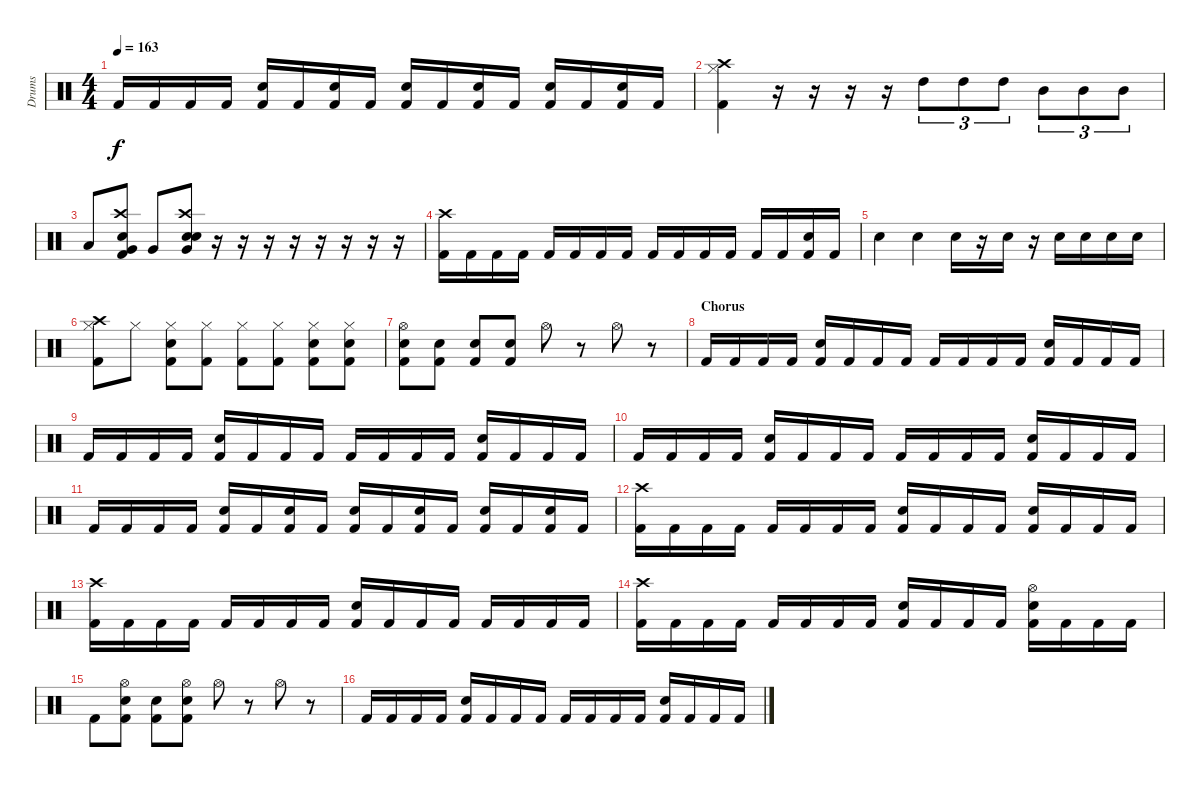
\track ("Drums" "Drums") {instrument percussion}
\staff {score}
\articulation defaults
\ts (4 4)
\tempo 163
\clef neutral
\ks c "Kick (hit) 2".16{dy f} "Kick (hit) 2".16 "Kick (hit) 2".16 "Kick (hit) 2".16
("Snare (hit) 2" "Kick (hit) 2").16 "Kick (hit) 2".16 ("Snare (hit) 2" "Kick (hit) 2").16 "Kick (hit) 2".16 ("Snare (hit) 2" "Kick (hit) 2").16 "Kick (hit) 2".16 ("Snare (hit) 2" "Kick (hit) 2").16 "Kick (hit) 2".16 ("Snare (hit) 2" "Kick (hit) 2").16 "Kick (hit) 2".16 ("Snare (hit) 2" "Kick (hit) 2").16 "Kick (hit) 2".16 |
("Crash high (hit)" "Hi-Hat (closed)" "Kick (hit) 2").4 r.16 r.16 r.16 r.16 "High Tom (hit)".8{tu (3 2)} "High Tom (hit)".8{tu (3 2)} "High Tom (hit)".8{tu (3 2)} "Mid Tom (hit)".8{tu (3 2)} "Mid Tom (hit)".8{tu (3 2)} "Mid Tom (hit)".8{tu (3 2)} |
"Low Tom (hit)".8 ("Crash high (hit)" "Electric Snare (hit)" "Very Low Tom (hit)" "Kick (hit) 2").8 "Very Low Tom (hit)".8 ("Crash high (hit)" "Electric Snare (hit)" "Very Low Tom (hit)" "Snare (hit)").8 r.16 r.16 r.16 r.16 r.16 r.16 r.16 r.16 |
("Crash high (hit)" "Kick (hit) 2").16 "Kick (hit) 2".16 "Kick (hit) 2".16 "Kick (hit) 2".16 "Kick (hit) 2".16 "Kick (hit) 2".16 "Kick (hit) 2".16 "Kick (hit) 2".16 "Kick (hit) 2".16 "Kick (hit) 2".16 "Kick (hit) 2".16 "Kick (hit) 2".16 "Kick (hit) 2".16 "Kick (hit) 2".16 ("Snare (hit) 2" "Kick (hit) 2").16 "Kick (hit) 2".16 |
"Snare (hit) 2".4 "Snare (hit) 2".4 "Snare (hit) 2".16 r.16 "Snare (hit) 2".16 r.16 "Snare (hit) 2".16 "Snare (hit) 2".16 "Snare (hit) 2".16 "Snare (hit) 2".16 |
("Crash high (hit)" "Hi-Hat (closed)" "Kick (hit) 2").8 "Hi-Hat (closed)".8 ("Snare (hit) 2" "Hi-Hat (closed)" "Kick (hit) 2").8 ("Hi-Hat (closed)" "Kick (hit) 2").8 ("Hi-Hat (closed)" "Kick (hit) 2").8 ("Hi-Hat (closed)" "Kick (hit) 2").8 ("Snare (hit) 2" "Hi-Hat (closed)" "Kick (hit) 2").8 ("Snare (hit) 2" "Hi-Hat (closed)" "Kick (hit) 2").8 |
("Hi-Hat (open)" "Snare (hit) 2" "Kick (hit) 2").8 ("Snare (hit) 2" "Kick (hit) 2").8 ("Snare (hit) 2" "Kick (hit) 2").8 ("Snare (hit) 2" "Kick (hit) 2").8 "Hi-Hat (open)".8 r.8 "Hi-Hat (open)".8 r.8 |
\section ("" "Chorus")
"Kick (hit) 2".16 "Kick (hit) 2".16 "Kick (hit) 2".16 "Kick (hit) 2".16 ("Snare (hit) 2" "Kick (hit) 2").16 "Kick (hit) 2".16 "Kick (hit) 2".16 "Kick (hit) 2".16 "Kick (hit) 2".16 "Kick (hit) 2".16 "Kick (hit) 2".16 "Kick (hit) 2".16 ("Snare (hit) 2" "Kick (hit) 2").16 "Kick (hit) 2".16 "Kick (hit) 2".16 "Kick (hit) 2".16 |
"Kick (hit) 2".16 "Kick (hit) 2".16 "Kick (hit) 2".16 "Kick (hit) 2".16 ("Snare (hit) 2" "Kick (hit) 2").16 "Kick (hit) 2".16 "Kick (hit) 2".16 "Kick (hit) 2".16 "Kick (hit) 2".16 "Kick (hit) 2".16 "Kick (hit) 2".16 "Kick (hit) 2".16 ("Snare (hit) 2" "Kick (hit) 2").16 "Kick (hit) 2".16 "Kick (hit) 2".16 "Kick (hit) 2".16 |
"Kick (hit) 2".16 "Kick (hit) 2".16 "Kick (hit) 2".16 "Kick (hit) 2".16 ("Snare (hit) 2" "Kick (hit) 2").16 "Kick (hit) 2".16 "Kick (hit) 2".16 "Kick (hit) 2".16 "Kick (hit) 2".16 "Kick (hit) 2".16 "Kick (hit) 2".16 "Kick (hit) 2".16 ("Snare (hit) 2" "Kick (hit) 2").16 "Kick (hit) 2".16 "Kick (hit) 2".16 "Kick (hit) 2".16 |
"Kick (hit) 2".16 "Kick (hit) 2".16 "Kick (hit) 2".16 "Kick (hit) 2".16 ("Snare (hit) 2" "Kick (hit) 2").16 "Kick (hit) 2".16 ("Snare (hit) 2" "Kick (hit) 2").16 "Kick (hit) 2".16 ("Snare (hit) 2" "Kick (hit) 2").16 "Kick (hit) 2".16 ("Snare (hit) 2" "Kick (hit) 2").16 "Kick (hit) 2".16 ("Snare (hit) 2" "Kick (hit) 2").16 "Kick (hit) 2".16 ("Snare (hit) 2" "Kick (hit) 2").16 "Kick (hit) 2".16 |
("Crash high (hit)" "Kick (hit) 2").16 "Kick (hit) 2".16 "Kick (hit) 2".16 "Kick (hit) 2".16 "Kick (hit) 2".16 "Kick (hit) 2".16 "Kick (hit) 2".16 "Kick (hit) 2".16 ("Snare (hit) 2" "Kick (hit) 2").16 "Kick (hit) 2".16 "Kick (hit) 2".16 "Kick (hit) 2".16 ("Snare (hit) 2" "Kick (hit) 2").16 "Kick (hit) 2".16 "Kick (hit) 2".16 "Kick (hit) 2".16 |
("Crash high (hit)" "Kick (hit) 2").16 "Kick (hit) 2".16 "Kick (hit) 2".16 "Kick (hit) 2".16 "Kick (hit) 2".16 "Kick (hit) 2".16 "Kick (hit) 2".16 "Kick (hit) 2".16 ("Snare (hit) 2" "Kick (hit) 2").16 "Kick (hit) 2".16 "Kick (hit) 2".16 "Kick (hit) 2".16 "Kick (hit) 2".16 "Kick (hit) 2".16 "Kick (hit) 2".16 "Kick (hit) 2".16 |
("Crash high (hit)" "Kick (hit) 2").16 "Kick (hit) 2".16 "Kick (hit) 2".16 "Kick (hit) 2".16 "Kick (hit) 2".16 "Kick (hit) 2".16 "Kick (hit) 2".16 "Kick (hit) 2".16 ("Snare (hit) 2" "Kick (hit) 2").16 "Kick (hit) 2".16 "Kick (hit) 2".16 "Kick (hit) 2".16 ("Hi-Hat (open)" "Snare (hit) 2" "Kick (hit) 2").16 "Kick (hit) 2".16 "Kick (hit) 2".16 "Kick (hit) 2".16 |
"Kick (hit) 2".8 ("Hi-Hat (open)" "Snare (hit) 2" "Kick (hit) 2").8 ("Snare (hit) 2" "Kick (hit) 2").8 ("Hi-Hat (open)" "Snare (hit) 2" "Kick (hit) 2").8 "Hi-Hat (open)".8 r.8 "Hi-Hat (open)".8 r.8 |
"Kick (hit) 2".16 "Kick (hit) 2".16 "Kick (hit) 2".16 "Kick (hit) 2".16 ("Snare (hit) 2" "Kick (hit) 2").16 "Kick (hit) 2".16 "Kick (hit) 2".16 "Kick (hit) 2".16 "Kick (hit) 2".16 "Kick (hit) 2".16 "Kick (hit) 2".16 "Kick (hit) 2".16 ("Snare (hit) 2" "Kick (hit) 2").16 "Kick (hit) 2".16 "Kick (hit) 2".16 "Kick (hit) 2".16
